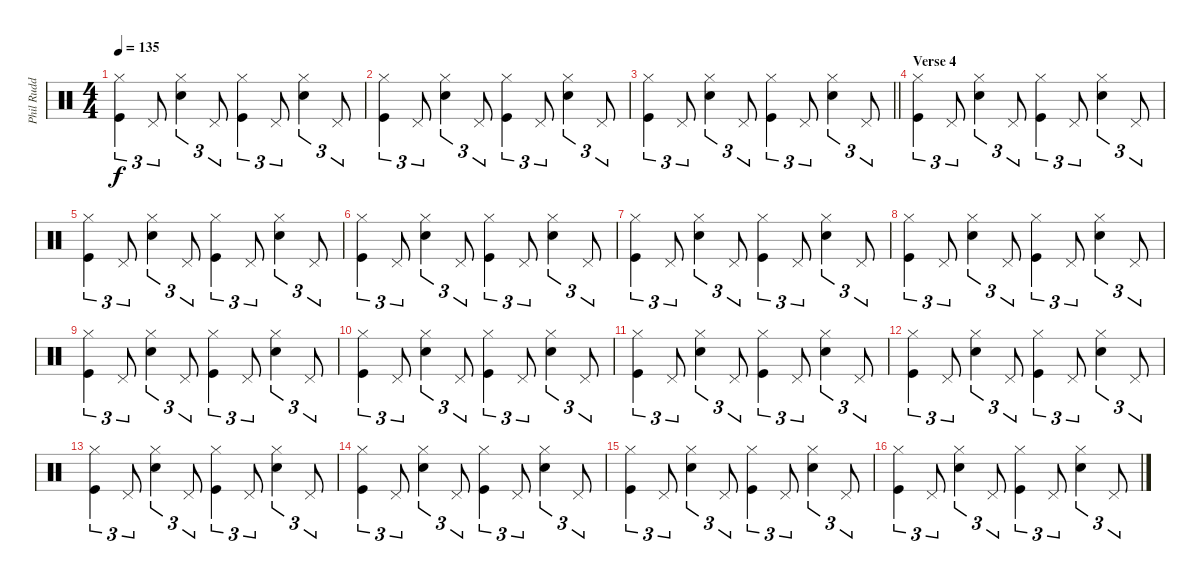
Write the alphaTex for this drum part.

\track ("Phil Rudd" "Phil Rudd") {instrument percussion}
\staff {score}
\articulation defaults
\ts (4 4)
\tempo 135
\clef neutral
\ks c
("Hi-Hat (closed)" "Kick (hit)").4{tu (3 2) dy f} "Pedal Hi-Hat (hit)".8{tu (3 2)} ("Hi-Hat (closed)" "Snare (hit) 2").4{tu (3 2)} "Pedal Hi-Hat (hit)".8{tu (3 2)} ("Hi-Hat (closed)" "Kick (hit)").4{tu (3 2)} "Pedal Hi-Hat (hit)".8{tu (3 2)} ("Hi-Hat (closed)" "Snare (hit) 2").4{tu (3 2)} "Pedal Hi-Hat (hit)".8{tu (3 2)} |
("Hi-Hat (closed)" "Kick (hit)").4{tu (3 2)} "Pedal Hi-Hat (hit)".8{tu (3 2)} ("Hi-Hat (closed)" "Snare (hit) 2").4{tu (3 2)} "Pedal Hi-Hat (hit)".8{tu (3 2)} ("Hi-Hat (closed)" "Kick (hit)").4{tu (3 2)} "Pedal Hi-Hat (hit)".8{tu (3 2)} ("Hi-Hat (closed)" "Snare (hit) 2").4{tu (3 2)} "Pedal Hi-Hat (hit)".8{tu (3 2)} |
\barLineRight lightlight
("Hi-Hat (closed)" "Kick (hit)").4{tu (3 2)} "Pedal Hi-Hat (hit)".8{tu (3 2)} ("Hi-Hat (closed)" "Snare (hit) 2").4{tu (3 2)} "Pedal Hi-Hat (hit)".8{tu (3 2)} ("Hi-Hat (closed)" "Kick (hit)").4{tu (3 2)} "Pedal Hi-Hat (hit)".8{tu (3 2)} ("Hi-Hat (closed)" "Snare (hit) 2").4{tu (3 2)} "Pedal Hi-Hat (hit)".8{tu (3 2)} |
\section ("" "Verse 4")
("Hi-Hat (closed)" "Kick (hit)").4{tu (3 2)} "Pedal Hi-Hat (hit)".8{tu (3 2)} ("Hi-Hat (closed)" "Snare (hit) 2").4{tu (3 2)} "Pedal Hi-Hat (hit)".8{tu (3 2)} ("Hi-Hat (closed)" "Kick (hit)").4{tu (3 2)} "Pedal Hi-Hat (hit)".8{tu (3 2)} ("Hi-Hat (closed)" "Snare (hit) 2").4{tu (3 2)} "Pedal Hi-Hat (hit)".8{tu (3 2)} |
("Hi-Hat (closed)" "Kick (hit)").4{tu (3 2)} "Pedal Hi-Hat (hit)".8{tu (3 2)} ("Hi-Hat (closed)" "Snare (hit) 2").4{tu (3 2)} "Pedal Hi-Hat (hit)".8{tu (3 2)} ("Hi-Hat (closed)" "Kick (hit)").4{tu (3 2)} "Pedal Hi-Hat (hit)".8{tu (3 2)} ("Hi-Hat (closed)" "Snare (hit) 2").4{tu (3 2)} "Pedal Hi-Hat (hit)".8{tu (3 2)} |
("Hi-Hat (closed)" "Kick (hit)").4{tu (3 2)} "Pedal Hi-Hat (hit)".8{tu (3 2)} ("Hi-Hat (closed)" "Snare (hit) 2").4{tu (3 2)} "Pedal Hi-Hat (hit)".8{tu (3 2)} ("Hi-Hat (closed)" "Kick (hit)").4{tu (3 2)} "Pedal Hi-Hat (hit)".8{tu (3 2)} ("Hi-Hat (closed)" "Snare (hit) 2").4{tu (3 2)} "Pedal Hi-Hat (hit)".8{tu (3 2)} |
("Hi-Hat (closed)" "Kick (hit)").4{tu (3 2)} "Pedal Hi-Hat (hit)".8{tu (3 2)} ("Hi-Hat (closed)" "Snare (hit) 2").4{tu (3 2)} "Pedal Hi-Hat (hit)".8{tu (3 2)} ("Hi-Hat (closed)" "Kick (hit)").4{tu (3 2)} "Pedal Hi-Hat (hit)".8{tu (3 2)} ("Hi-Hat (closed)" "Snare (hit) 2").4{tu (3 2)} "Pedal Hi-Hat (hit)".8{tu (3 2)} |
("Hi-Hat (closed)" "Kick (hit)").4{tu (3 2)} "Pedal Hi-Hat (hit)".8{tu (3 2)} ("Hi-Hat (closed)" "Snare (hit) 2").4{tu (3 2)} "Pedal Hi-Hat (hit)".8{tu (3 2)} ("Hi-Hat (closed)" "Kick (hit)").4{tu (3 2)} "Pedal Hi-Hat (hit)".8{tu (3 2)} ("Hi-Hat (closed)" "Snare (hit) 2").4{tu (3 2)} "Pedal Hi-Hat (hit)".8{tu (3 2)} |
("Hi-Hat (closed)" "Kick (hit)").4{tu (3 2)} "Pedal Hi-Hat (hit)".8{tu (3 2)} ("Hi-Hat (closed)" "Snare (hit) 2").4{tu (3 2)} "Pedal Hi-Hat (hit)".8{tu (3 2)} ("Hi-Hat (closed)" "Kick (hit)").4{tu (3 2)} "Pedal Hi-Hat (hit)".8{tu (3 2)} ("Hi-Hat (closed)" "Snare (hit) 2").4{tu (3 2)} "Pedal Hi-Hat (hit)".8{tu (3 2)} |
("Hi-Hat (closed)" "Kick (hit)").4{tu (3 2)} "Pedal Hi-Hat (hit)".8{tu (3 2)} ("Hi-Hat (closed)" "Snare (hit) 2").4{tu (3 2)} "Pedal Hi-Hat (hit)".8{tu (3 2)} ("Hi-Hat (closed)" "Kick (hit)").4{tu (3 2)} "Pedal Hi-Hat (hit)".8{tu (3 2)} ("Hi-Hat (closed)" "Snare (hit) 2").4{tu (3 2)} "Pedal Hi-Hat (hit)".8{tu (3 2)} |
("Hi-Hat (closed)" "Kick (hit)").4{tu (3 2)} "Pedal Hi-Hat (hit)".8{tu (3 2)} ("Hi-Hat (closed)" "Snare (hit) 2").4{tu (3 2)} "Pedal Hi-Hat (hit)".8{tu (3 2)} ("Hi-Hat (closed)" "Kick (hit)").4{tu (3 2)} "Pedal Hi-Hat (hit)".8{tu (3 2)} ("Hi-Hat (closed)" "Snare (hit) 2").4{tu (3 2)} "Pedal Hi-Hat (hit)".8{tu (3 2)} |
("Hi-Hat (closed)" "Kick (hit)").4{tu (3 2)} "Pedal Hi-Hat (hit)".8{tu (3 2)} ("Hi-Hat (closed)" "Snare (hit) 2").4{tu (3 2)} "Pedal Hi-Hat (hit)".8{tu (3 2)} ("Hi-Hat (closed)" "Kick (hit)").4{tu (3 2)} "Pedal Hi-Hat (hit)".8{tu (3 2)} ("Hi-Hat (closed)" "Snare (hit) 2").4{tu (3 2)} "Pedal Hi-Hat (hit)".8{tu (3 2)} |
("Hi-Hat (closed)" "Kick (hit)").4{tu (3 2)} "Pedal Hi-Hat (hit)".8{tu (3 2)} ("Hi-Hat (closed)" "Snare (hit) 2").4{tu (3 2)} "Pedal Hi-Hat (hit)".8{tu (3 2)} ("Hi-Hat (closed)" "Kick (hit)").4{tu (3 2)} "Pedal Hi-Hat (hit)".8{tu (3 2)} ("Hi-Hat (closed)" "Snare (hit) 2").4{tu (3 2)} "Pedal Hi-Hat (hit)".8{tu (3 2)} |
("Hi-Hat (closed)" "Kick (hit)").4{tu (3 2)} "Pedal Hi-Hat (hit)".8{tu (3 2)} ("Hi-Hat (closed)" "Snare (hit) 2").4{tu (3 2)} "Pedal Hi-Hat (hit)".8{tu (3 2)} ("Hi-Hat (closed)" "Kick (hit)").4{tu (3 2)} "Pedal Hi-Hat (hit)".8{tu (3 2)} ("Hi-Hat (closed)" "Snare (hit) 2").4{tu (3 2)} "Pedal Hi-Hat (hit)".8{tu (3 2)} |
("Hi-Hat (closed)" "Kick (hit)").4{tu (3 2)} "Pedal Hi-Hat (hit)".8{tu (3 2)} ("Hi-Hat (closed)" "Snare (hit) 2").4{tu (3 2)} "Pedal Hi-Hat (hit)".8{tu (3 2)} ("Hi-Hat (closed)" "Kick (hit)").4{tu (3 2)} "Pedal Hi-Hat (hit)".8{tu (3 2)} ("Hi-Hat (closed)" "Snare (hit) 2").4{tu (3 2)} "Pedal Hi-Hat (hit)".8{tu (3 2)} |
("Hi-Hat (closed)" "Kick (hit)").4{tu (3 2)} "Pedal Hi-Hat (hit)".8{tu (3 2)} ("Hi-Hat (closed)" "Snare (hit) 2").4{tu (3 2)} "Pedal Hi-Hat (hit)".8{tu (3 2)} ("Hi-Hat (closed)" "Kick (hit)").4{tu (3 2)} "Pedal Hi-Hat (hit)".8{tu (3 2)} ("Hi-Hat (closed)" "Snare (hit) 2").4{tu (3 2)} "Pedal Hi-Hat (hit)".8{tu (3 2)}
